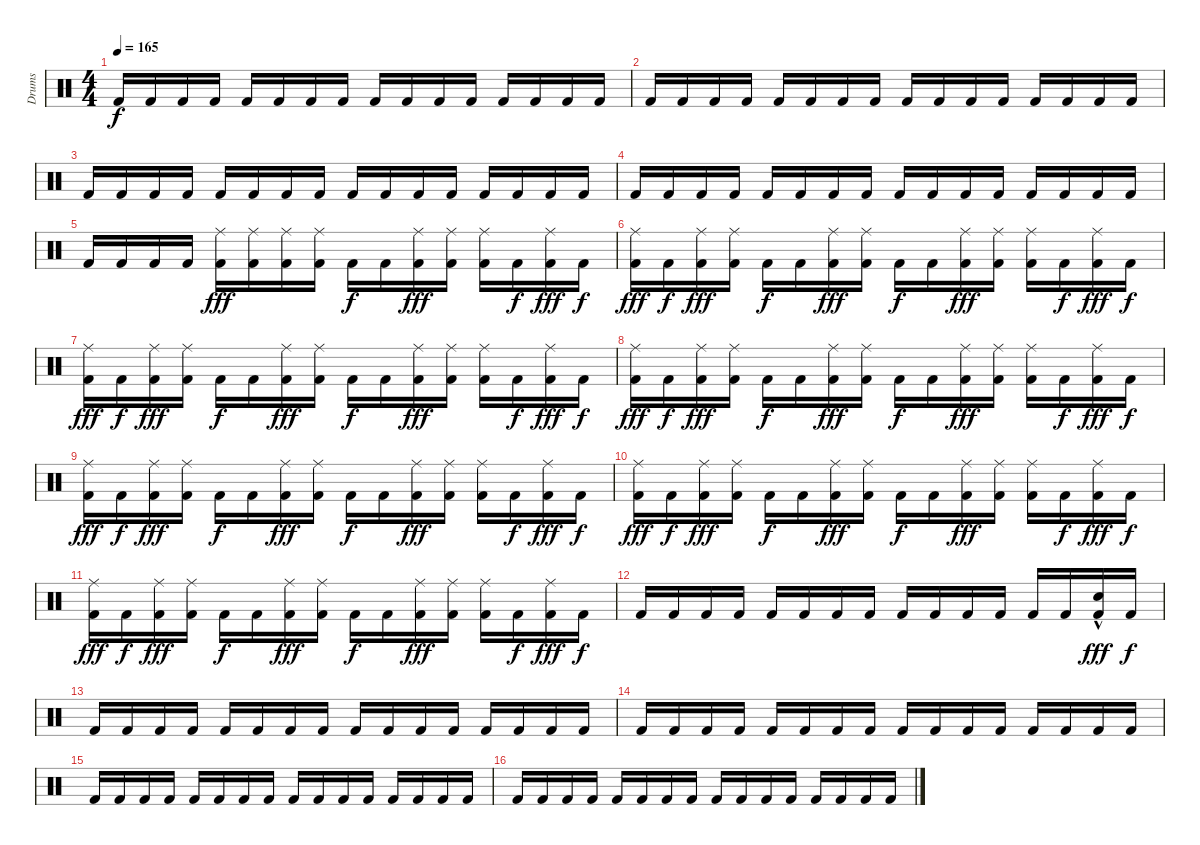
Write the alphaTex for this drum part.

\track ("Drums" "Drums") {instrument percussion}
\staff {score}
\articulation defaults
\ts (4 4)
\tempo 165
\clef neutral
\ks c "Kick (hit) 2".16{dy f} "Kick (hit) 2".16 "Kick (hit) 2".16 "Kick (hit) 2".16 "Kick (hit) 2".16 "Kick (hit) 2".16 "Kick (hit) 2".16 "Kick (hit) 2".16 "Kick (hit) 2".16 "Kick (hit) 2".16 "Kick (hit) 2".16 "Kick (hit) 2".16 "Kick (hit) 2".16 "Kick (hit) 2".16 "Kick (hit) 2".16 "Kick (hit) 2".16
|
"Kick (hit) 2".16 "Kick (hit) 2".16 "Kick (hit) 2".16 "Kick (hit) 2".16 "Kick (hit) 2".16 "Kick (hit) 2".16 "Kick (hit) 2".16 "Kick (hit) 2".16 "Kick (hit) 2".16 "Kick (hit) 2".16 "Kick (hit) 2".16 "Kick (hit) 2".16 "Kick (hit) 2".16 "Kick (hit) 2".16 "Kick (hit) 2".16 "Kick (hit) 2".16 |
"Kick (hit) 2".16 "Kick (hit) 2".16 "Kick (hit) 2".16 "Kick (hit) 2".16 "Kick (hit) 2".16 "Kick (hit) 2".16 "Kick (hit) 2".16 "Kick (hit) 2".16 "Kick (hit) 2".16 "Kick (hit) 2".16 "Kick (hit) 2".16 "Kick (hit) 2".16 "Kick (hit) 2".16 "Kick (hit) 2".16 "Kick (hit) 2".16 "Kick (hit) 2".16 |
"Kick (hit) 2".16 "Kick (hit) 2".16 "Kick (hit) 2".16 "Kick (hit) 2".16 "Kick (hit) 2".16 "Kick (hit) 2".16 "Kick (hit) 2".16 "Kick (hit) 2".16 "Kick (hit) 2".16 "Kick (hit) 2".16 "Kick (hit) 2".16 "Kick (hit) 2".16 "Kick (hit) 2".16 "Kick (hit) 2".16 "Kick (hit) 2".16 "Kick (hit) 2".16 |
"Kick (hit) 2".16 "Kick (hit) 2".16 "Kick (hit) 2".16 "Kick (hit) 2".16 ("Ride (middle)" "Kick (hit) 2").16{dy fff} ("Ride (middle)" "Kick (hit) 2").16 ("Ride (middle)" "Kick (hit) 2").16 ("Ride (middle)" "Kick (hit) 2").16 "Kick (hit) 2".16{dy f} "Kick (hit) 2".16 ("Ride (middle)" "Kick (hit) 2").16{dy fff} ("Ride (middle)" "Kick (hit) 2").16 ("Ride (middle)" "Kick (hit) 2").16 "Kick (hit) 2".16{dy f} ("Ride (middle)" "Kick (hit) 2").16{dy fff} "Kick (hit) 2".16{dy f} |
("Ride (middle)" "Kick (hit) 2").16{dy fff} "Kick (hit) 2".16{dy f} ("Ride (middle)" "Kick (hit) 2").16{dy fff} ("Ride (middle)" "Kick (hit) 2").16 "Kick (hit) 2".16{dy f} "Kick (hit) 2".16 ("Ride (middle)" "Kick (hit) 2").16{dy fff} ("Ride (middle)" "Kick (hit) 2").16 "Kick (hit) 2".16{dy f} "Kick (hit) 2".16 ("Ride (middle)" "Kick (hit) 2").16{dy fff} ("Ride (middle)" "Kick (hit) 2").16 ("Ride (middle)" "Kick (hit) 2").16 "Kick (hit) 2".16{dy f} ("Ride (middle)" "Kick (hit) 2").16{dy fff} "Kick (hit) 2".16{dy f} |
("Ride (middle)" "Kick (hit) 2").16{dy fff} "Kick (hit) 2".16{dy f} ("Ride (middle)" "Kick (hit) 2").16{dy fff} ("Ride (middle)" "Kick (hit) 2").16 "Kick (hit) 2".16{dy f} "Kick (hit) 2".16 ("Ride (middle)" "Kick (hit) 2").16{dy fff} ("Ride (middle)" "Kick (hit) 2").16 "Kick (hit) 2".16{dy f} "Kick (hit) 2".16 ("Ride (middle)" "Kick (hit) 2").16{dy fff} ("Ride (middle)" "Kick (hit) 2").16 ("Ride (middle)" "Kick (hit) 2").16 "Kick (hit) 2".16{dy f} ("Ride (middle)" "Kick (hit) 2").16{dy fff} "Kick (hit) 2".16{dy f} |
("Ride (middle)" "Kick (hit) 2").16{dy fff} "Kick (hit) 2".16{dy f} ("Ride (middle)" "Kick (hit) 2").16{dy fff} ("Ride (middle)" "Kick (hit) 2").16 "Kick (hit) 2".16{dy f} "Kick (hit) 2".16 ("Ride (middle)" "Kick (hit) 2").16{dy fff} ("Ride (middle)" "Kick (hit) 2").16 "Kick (hit) 2".16{dy f} "Kick (hit) 2".16 ("Ride (middle)" "Kick (hit) 2").16{dy fff} ("Ride (middle)" "Kick (hit) 2").16 ("Ride (middle)" "Kick (hit) 2").16 "Kick (hit) 2".16{dy f} ("Ride (middle)" "Kick (hit) 2").16{dy fff} "Kick (hit) 2".16{dy f} |
("Ride (middle)" "Kick (hit) 2").16{dy fff} "Kick (hit) 2".16{dy f} ("Ride (middle)" "Kick (hit) 2").16{dy fff} ("Ride (middle)" "Kick (hit) 2").16 "Kick (hit) 2".16{dy f} "Kick (hit) 2".16 ("Ride (middle)" "Kick (hit) 2").16{dy fff} ("Ride (middle)" "Kick (hit) 2").16 "Kick (hit) 2".16{dy f} "Kick (hit) 2".16 ("Ride (middle)" "Kick (hit) 2").16{dy fff} ("Ride (middle)" "Kick (hit) 2").16 ("Ride (middle)" "Kick (hit) 2").16 "Kick (hit) 2".16{dy f} ("Ride (middle)" "Kick (hit) 2").16{dy fff} "Kick (hit) 2".16{dy f} |
("Ride (middle)" "Kick (hit) 2").16{dy fff} "Kick (hit) 2".16{dy f} ("Ride (middle)" "Kick (hit) 2").16{dy fff} ("Ride (middle)" "Kick (hit) 2").16 "Kick (hit) 2".16{dy f} "Kick (hit) 2".16 ("Ride (middle)" "Kick (hit) 2").16{dy fff} ("Ride (middle)" "Kick (hit) 2").16 "Kick (hit) 2".16{dy f} "Kick (hit) 2".16 ("Ride (middle)" "Kick (hit) 2").16{dy fff} ("Ride (middle)" "Kick (hit) 2").16 ("Ride (middle)" "Kick (hit) 2").16 "Kick (hit) 2".16{dy f} ("Ride (middle)" "Kick (hit) 2").16{dy fff} "Kick (hit) 2".16{dy f} |
("Ride (middle)" "Kick (hit) 2").16{dy fff} "Kick (hit) 2".16{dy f} ("Ride (middle)" "Kick (hit) 2").16{dy fff} ("Ride (middle)" "Kick (hit) 2").16 "Kick (hit) 2".16{dy f} "Kick (hit) 2".16 ("Ride (middle)" "Kick (hit) 2").16{dy fff} ("Ride (middle)" "Kick (hit) 2").16 "Kick (hit) 2".16{dy f} "Kick (hit) 2".16 ("Ride (middle)" "Kick (hit) 2").16{dy fff} ("Ride (middle)" "Kick (hit) 2").16 ("Ride (middle)" "Kick (hit) 2").16 "Kick (hit) 2".16{dy f} ("Ride (middle)" "Kick (hit) 2").16{dy fff} "Kick (hit) 2".16{dy f} |
"Kick (hit) 2".16 "Kick (hit) 2".16 "Kick (hit) 2".16 "Kick (hit) 2".16 "Kick (hit) 2".16 "Kick (hit) 2".16 "Kick (hit) 2".16 "Kick (hit) 2".16 "Kick (hit) 2".16 "Kick (hit) 2".16 "Kick (hit) 2".16 "Kick (hit) 2".16 "Kick (hit) 2".16 "Kick (hit) 2".16 ("Electric Snare (hit)"{hac} "Kick (hit) 2").16{dy fff} "Kick (hit) 2".16{dy f} |
"Kick (hit) 2".16 "Kick (hit) 2".16 "Kick (hit) 2".16 "Kick (hit) 2".16 "Kick (hit) 2".16 "Kick (hit) 2".16 "Kick (hit) 2".16 "Kick (hit) 2".16 "Kick (hit) 2".16 "Kick (hit) 2".16 "Kick (hit) 2".16 "Kick (hit) 2".16 "Kick (hit) 2".16 "Kick (hit) 2".16 "Kick (hit) 2".16 "Kick (hit) 2".16 |
"Kick (hit) 2".16{volume 16} "Kick (hit) 2".16 "Kick (hit) 2".16 "Kick (hit) 2".16 "Kick (hit) 2".16 "Kick (hit) 2".16 "Kick (hit) 2".16 "Kick (hit) 2".16 "Kick (hit) 2".16{volume 15} "Kick (hit) 2".16 "Kick (hit) 2".16 "Kick (hit) 2".16 "Kick (hit) 2".16 "Kick (hit) 2".16 "Kick (hit) 2".16 "Kick (hit) 2".16 |
"Kick (hit) 2".16{volume 14} "Kick (hit) 2".16 "Kick (hit) 2".16 "Kick (hit) 2".16 "Kick (hit) 2".16 "Kick (hit) 2".16 "Kick (hit) 2".16 "Kick (hit) 2".16 "Kick (hit) 2".16{volume 13} "Kick (hit) 2".16 "Kick (hit) 2".16 "Kick (hit) 2".16 "Kick (hit) 2".16 "Kick (hit) 2".16 "Kick (hit) 2".16 "Kick (hit) 2".16 |
"Kick (hit) 2".16{volume 12} "Kick (hit) 2".16 "Kick (hit) 2".16 "Kick (hit) 2".16 "Kick (hit) 2".16 "Kick (hit) 2".16 "Kick (hit) 2".16 "Kick (hit) 2".16 "Kick (hit) 2".16{volume 11} "Kick (hit) 2".16 "Kick (hit) 2".16 "Kick (hit) 2".16 "Kick (hit) 2".16 "Kick (hit) 2".16 "Kick (hit) 2".16 "Kick (hit) 2".16
